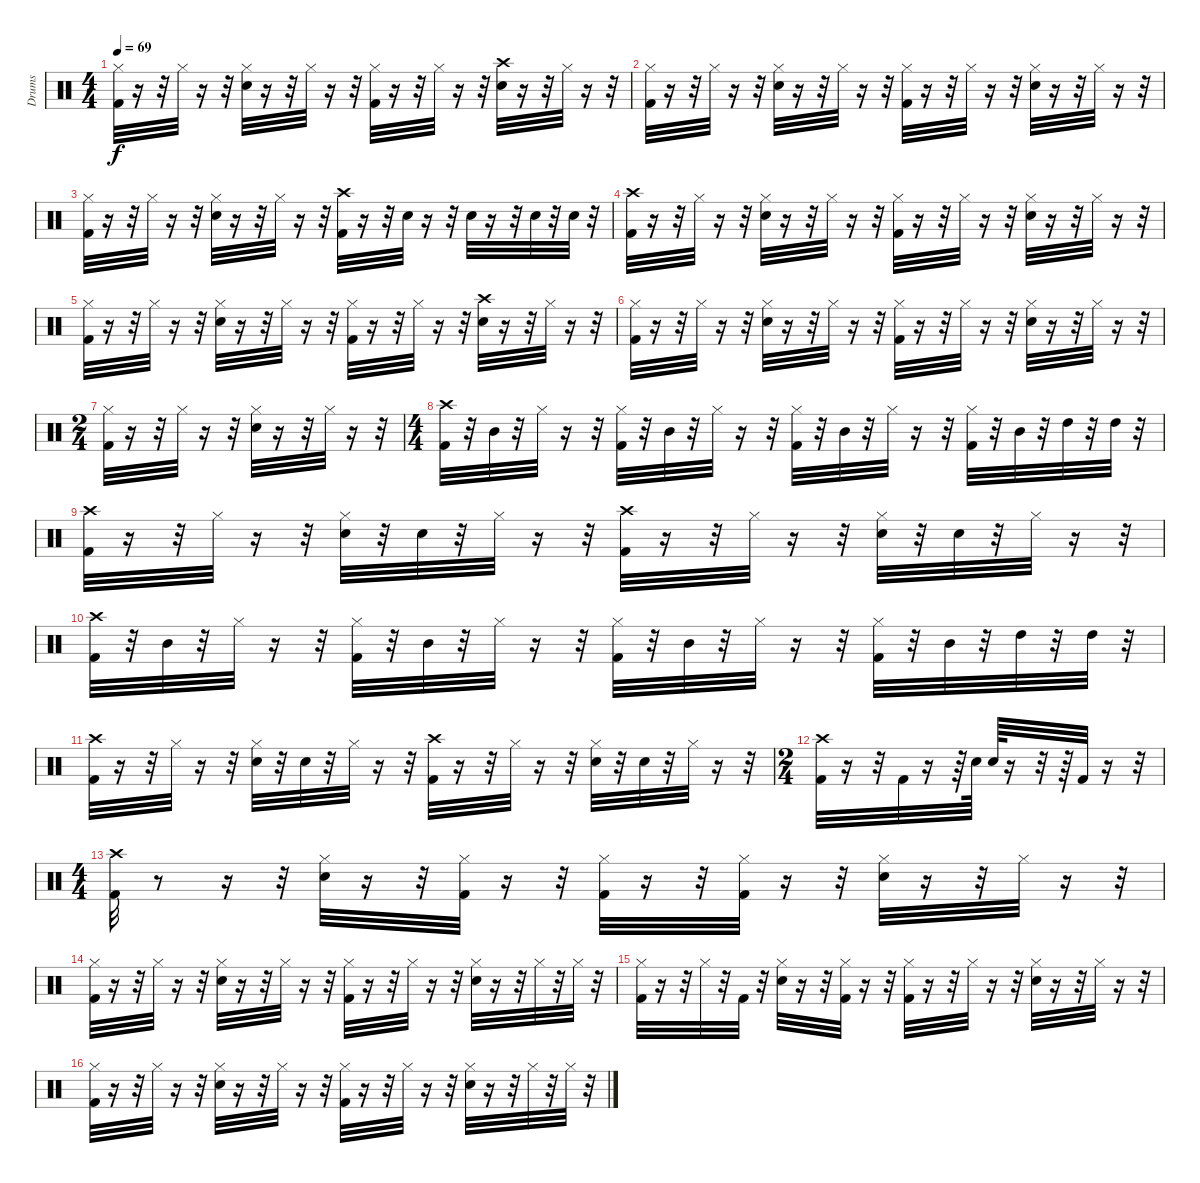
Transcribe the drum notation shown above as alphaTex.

\track ("Drums" "Drums") {instrument percussion}
\staff {score}
\articulation defaults
\ts (4 4)
\tempo 69
\clef neutral
\ks c
("Kick (hit) 2" "Hi-Hat (closed)").32{dy f} r.16 r.32 "Hi-Hat (closed)".32 r.16 r.32 ("Snare (hit) 2" "Hi-Hat (closed)").32 r.16 r.32 "Hi-Hat (closed)".32 r.16 r.32 ("Hi-Hat (closed)" "Kick (hit) 2").32 r.16 r.32 "Hi-Hat (closed)".32 r.16 r.32 ("Crash high (hit)" "Snare (hit) 2").32 r.16 r.32 "Hi-Hat (closed)".32 r.16 r.32 |
("Hi-Hat (closed)" "Kick (hit) 2").32 r.16 r.32 "Hi-Hat (closed)".32 r.16 r.32 ("Snare (hit) 2" "Hi-Hat (closed)").32 r.16 r.32 "Hi-Hat (closed)".32 r.16 r.32 ("Hi-Hat (closed)" "Kick (hit) 2").32 r.16 r.32 "Hi-Hat (closed)".32 r.16 r.32 ("Snare (hit) 2" "Hi-Hat (closed)").32 r.16 r.32 "Hi-Hat (closed)".32 r.16 r.32 |
("Kick (hit) 2" "Hi-Hat (closed)").32 r.16 r.32 "Hi-Hat (closed)".32 r.16 r.32 ("Snare (hit) 2" "Hi-Hat (closed)").32 r.16 r.32 "Hi-Hat (closed)".32 r.16 r.32 ("Crash high (hit)" "Kick (hit) 2").32 r.16 r.32 "Snare (hit) 2".32 r.16 r.32 "Snare (hit) 2".32 r.16 r.32 "Snare (hit) 2".32 r.32 "Snare (hit) 2".32 r.32 |
("Kick (hit) 2" "Crash high (hit)").32 r.16 r.32 "Hi-Hat (closed)".32 r.16 r.32 ("Snare (hit) 2" "Hi-Hat (closed)").32 r.16 r.32 "Hi-Hat (closed)".32 r.16 r.32 ("Hi-Hat (closed)" "Kick (hit) 2").32 r.16 r.32 "Hi-Hat (closed)".32 r.16 r.32 ("Snare (hit) 2" "Hi-Hat (closed)").32 r.16 r.32 "Hi-Hat (closed)".32 r.16 r.32 |
("Kick (hit) 2" "Hi-Hat (closed)").32 r.16 r.32 "Hi-Hat (closed)".32 r.16 r.32 ("Snare (hit) 2" "Hi-Hat (closed)").32 r.16 r.32 "Hi-Hat (closed)".32 r.16 r.32 ("Hi-Hat (closed)" "Kick (hit) 2").32 r.16 r.32 "Hi-Hat (closed)".32 r.16 r.32 ("Crash high (hit)" "Snare (hit) 2").32 r.16 r.32 "Hi-Hat (closed)".32 r.16 r.32 |
("Kick (hit) 2" "Hi-Hat (closed)").32 r.16 r.32 "Hi-Hat (closed)".32 r.16 r.32 ("Snare (hit) 2" "Hi-Hat (closed)").32 r.16 r.32 "Hi-Hat (closed)".32 r.16 r.32 ("Kick (hit) 2" "Hi-Hat (closed)").32 r.16 r.32 "Hi-Hat (closed)".32 r.16 r.32 ("Snare (hit) 2" "Hi-Hat (closed)").32 r.16 r.32 "Hi-Hat (closed)".32 r.16 r.32 |
\ts (2 4)
("Kick (hit) 2" "Hi-Hat (closed)").32 r.16 r.32 "Hi-Hat (closed)".32 r.16 r.32 ("Snare (hit) 2" "Hi-Hat (closed)").32 r.16 r.32 "Hi-Hat (closed)".32 r.16 r.32 |
\ts (4 4)
("Kick (hit) 2" "Crash high (hit)").32 r.32 "Mid Tom (hit)".32 r.32 "Hi-Hat (closed)".32 r.16 r.32 ("Hi-Hat (closed)" "Kick (hit) 2").32 r.32 "Mid Tom (hit)".32 r.32 "Hi-Hat (closed)".32 r.16 r.32 ("Hi-Hat (closed)" "Kick (hit) 2").32 r.32 "Mid Tom (hit)".32 r.32 "Hi-Hat (closed)".32 r.16 r.32 ("Hi-Hat (closed)" "Kick (hit) 2").32 r.32 "Mid Tom (hit)".32 r.32 "High Tom (hit)".32 r.32 "High Tom (hit)".32 r.32 |
("Kick (hit) 2" "Crash high (hit)").32 r.16 r.32 "Hi-Hat (closed)".32 r.16 r.32 ("Snare (hit) 2" "Hi-Hat (closed)").32 r.32 "Snare (hit) 2".32 r.32 "Hi-Hat (closed)".32 r.16 r.32 ("Crash high (hit)" "Kick (hit) 2").32 r.16 r.32 "Hi-Hat (closed)".32 r.16 r.32 ("Snare (hit) 2" "Hi-Hat (closed)").32 r.32 "Snare (hit) 2".32 r.32 "Hi-Hat (closed)".32 r.16 r.32 |
("Kick (hit) 2" "Crash high (hit)").32 r.32 "Mid Tom (hit)".32 r.32 "Hi-Hat (closed)".32 r.16 r.32 ("Hi-Hat (closed)" "Kick (hit) 2").32 r.32 "Mid Tom (hit)".32 r.32 "Hi-Hat (closed)".32 r.16 r.32 ("Hi-Hat (closed)" "Kick (hit) 2").32 r.32 "Mid Tom (hit)".32 r.32 "Hi-Hat (closed)".32 r.16 r.32 ("Hi-Hat (closed)" "Kick (hit) 2").32 r.32 "Mid Tom (hit)".32 r.32 "High Tom (hit)".32 r.32 "High Tom (hit)".32 r.32 |
("Kick (hit) 2" "Crash high (hit)").32 r.16 r.32 "Hi-Hat (closed)".32 r.16 r.32 ("Snare (hit) 2" "Hi-Hat (closed)").32 r.32 "Snare (hit) 2".32 r.32 "Hi-Hat (closed)".32 r.16 r.32 ("Crash high (hit)" "Kick (hit) 2").32 r.16 r.32 "Hi-Hat (closed)".32 r.16 r.32 ("Snare (hit) 2" "Hi-Hat (closed)").32 r.32 "Snare (hit) 2".32 r.32 "Hi-Hat (closed)".32 r.16 r.32 |
\ts (2 4)
("Kick (hit) 2" "Crash high (hit)").32 r.16 r.32 "Kick (hit) 2".32 r.16 r.64 "Snare (hit) 2".64 "Snare (hit) 2".64 r.16 r.32 r.64 "Kick (hit) 2".32 r.16 r.32 |
\ts (4 4)
("Kick (hit) 2" "Crash high (hit)").32 r.8 r.16 r.32 ("Hi-Hat (closed)" "Snare (hit) 2").32 r.16 r.32 ("Hi-Hat (closed)" "Kick (hit) 2").32 r.16 r.32 ("Hi-Hat (closed)" "Kick (hit) 2").32 r.16 r.32 ("Hi-Hat (closed)" "Kick (hit) 2").32 r.16 r.32 ("Hi-Hat (closed)" "Snare (hit) 2").32 r.16 r.32 "Hi-Hat (closed)".32 r.16 r.32 |
("Hi-Hat (closed)" "Kick (hit) 2").32 r.16 r.32 "Hi-Hat (closed)".32 r.16 r.32 ("Snare (hit) 2" "Hi-Hat (closed)").32 r.16 r.32 "Hi-Hat (closed)".32 r.16 r.32 ("Hi-Hat (closed)" "Kick (hit) 2").32 r.16 r.32 "Hi-Hat (closed)".32 r.16 r.32 ("Hi-Hat (closed)" "Snare (hit) 2").32 r.16 r.32 "Hi-Hat (closed)".32 r.32 "Hi-Hat (closed)".32 r.32 |
("Hi-Hat (closed)" "Kick (hit) 2").32 r.16 r.32 "Hi-Hat (closed)".32 r.32 "Kick (hit) 2".32 r.32 ("Snare (hit) 2" "Hi-Hat (closed)").32 r.16 r.32 ("Kick (hit) 2" "Hi-Hat (closed)").32 r.16 r.32 ("Hi-Hat (closed)" "Kick (hit) 2").32 r.16 r.32 "Hi-Hat (closed)".32 r.16 r.32 ("Snare (hit) 2" "Hi-Hat (closed)").32 r.16 r.32 "Hi-Hat (closed)".32 r.16 r.32 |
("Hi-Hat (closed)" "Kick (hit) 2").32 r.16 r.32 "Hi-Hat (closed)".32 r.16 r.32 ("Snare (hit) 2" "Hi-Hat (closed)").32 r.16 r.32 "Hi-Hat (closed)".32 r.16 r.32 ("Kick (hit) 2" "Hi-Hat (closed)").32 r.16 r.32 "Hi-Hat (closed)".32 r.16 r.32 ("Hi-Hat (closed)" "Snare (hit) 2").32 r.16 r.32 "Hi-Hat (closed)".32 r.32 "Hi-Hat (closed)".32 r.32
